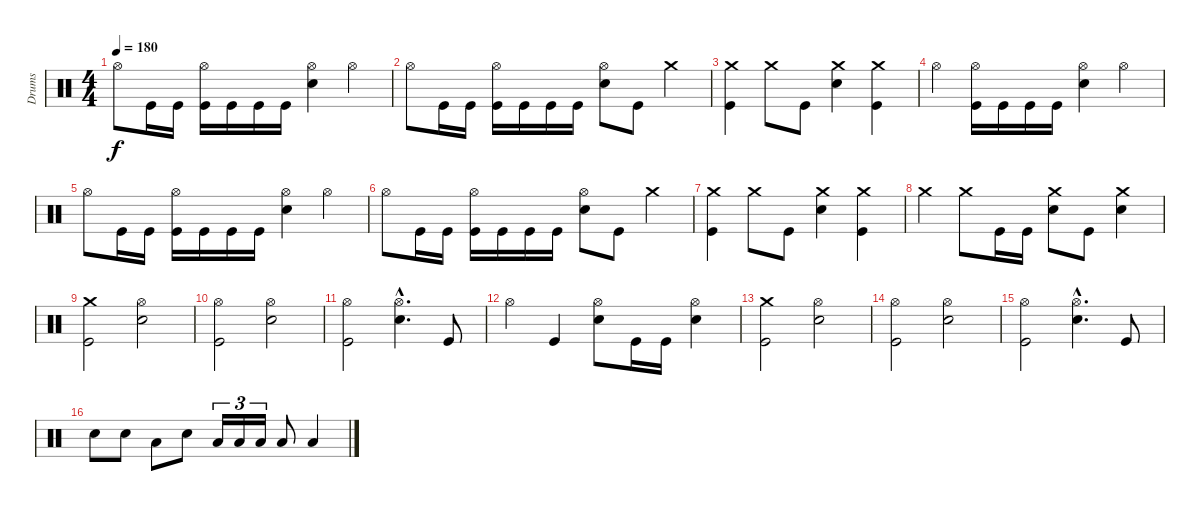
\track ("Drums" "Drums") {instrument percussion}
\staff {score}
\articulation defaults
\ts (4 4)
\tempo 180
\clef neutral
\ks c "Hi-Hat (open)".8{dy f} "Kick (hit)".16 "Kick (hit)".16
("Hi-Hat (open)" "Kick (hit)").16 "Kick (hit)".16 "Kick (hit)".16 "Kick (hit)".16 ("Hi-Hat (open)" "Electric Snare (hit)").4 "Hi-Hat (open)".4 |
"Hi-Hat (open)".8 "Kick (hit)".16 "Kick (hit)".16 ("Hi-Hat (open)" "Kick (hit)").16 "Kick (hit)".16 "Kick (hit)".16 "Kick (hit)".16 ("Hi-Hat (open)" "Electric Snare (hit)").8 "Kick (hit)".8 "Crash medium (hit)".4 |
("Crash medium (hit)" "Kick (hit)").4 "Crash medium (hit)".8 "Kick (hit)".8 ("Crash medium (hit)" "Electric Snare (hit)").4 ("Crash medium (hit)" "Kick (hit)").4 |
"Hi-Hat (open)".4 ("Hi-Hat (open)" "Kick (hit)").16 "Kick (hit)".16 "Kick (hit)".16 "Kick (hit)".16 ("Hi-Hat (open)" "Electric Snare (hit)").4 "Hi-Hat (open)".4 |
"Hi-Hat (open)".8 "Kick (hit)".16 "Kick (hit)".16 ("Hi-Hat (open)" "Kick (hit)").16 "Kick (hit)".16 "Kick (hit)".16 "Kick (hit)".16 ("Hi-Hat (open)" "Electric Snare (hit)").4 "Hi-Hat (open)".4 |
"Hi-Hat (open)".8 "Kick (hit)".16 "Kick (hit)".16 ("Hi-Hat (open)" "Kick (hit)").16 "Kick (hit)".16 "Kick (hit)".16 "Kick (hit)".16 ("Hi-Hat (open)" "Electric Snare (hit)").8 "Kick (hit)".8 "Crash medium (hit)".4 |
("Crash medium (hit)" "Kick (hit)").4 "Crash medium (hit)".8 "Kick (hit)".8 ("Crash medium (hit)" "Electric Snare (hit)").4 ("Crash medium (hit)" "Kick (hit)").4 |
"Crash medium (hit)".4 "Crash medium (hit)".8 "Kick (hit)".16 "Kick (hit)".16 ("Crash medium (hit)" "Electric Snare (hit)").8 "Kick (hit)".8 ("Crash medium (hit)" "Electric Snare (hit)").4 |
("Crash medium (hit)" "Kick (hit)").2 ("Hi-Hat (open)" "Electric Snare (hit)").2 |
("Hi-Hat (open)" "Kick (hit)").2 ("Hi-Hat (open)" "Electric Snare (hit)").2 |
("Hi-Hat (open)" "Kick (hit)").2 ("Hi-Hat (open)"{hac} "Electric Snare (hit)"{hac}).4{d} "Kick (hit)".8 |
"Hi-Hat (open)".4 "Kick (hit)".4 ("Hi-Hat (open)" "Electric Snare (hit)").8 "Kick (hit)".16 "Kick (hit)".16 ("Hi-Hat (open)" "Electric Snare (hit)").4 |
("Crash medium (hit)" "Kick (hit)").2 ("Hi-Hat (open)" "Electric Snare (hit)").2 |
("Hi-Hat (open)" "Kick (hit)").2 ("Hi-Hat (open)" "Electric Snare (hit)").2 |
("Hi-Hat (open)" "Kick (hit)").2 ("Hi-Hat (open)"{hac} "Electric Snare (hit)"{hac}).4{d} "Kick (hit)".8 |
"Electric Snare (hit)".8 "Electric Snare (hit)".8 "Low Tom (hit)".8 "Electric Snare (hit)".8 "Low Tom (hit)".16{tu (3 2)} "Low Tom (hit)".16{tu (3 2)} "Low Tom (hit)".16{tu (3 2)} "Low Tom (hit)".8 "Low Tom (hit)".4
